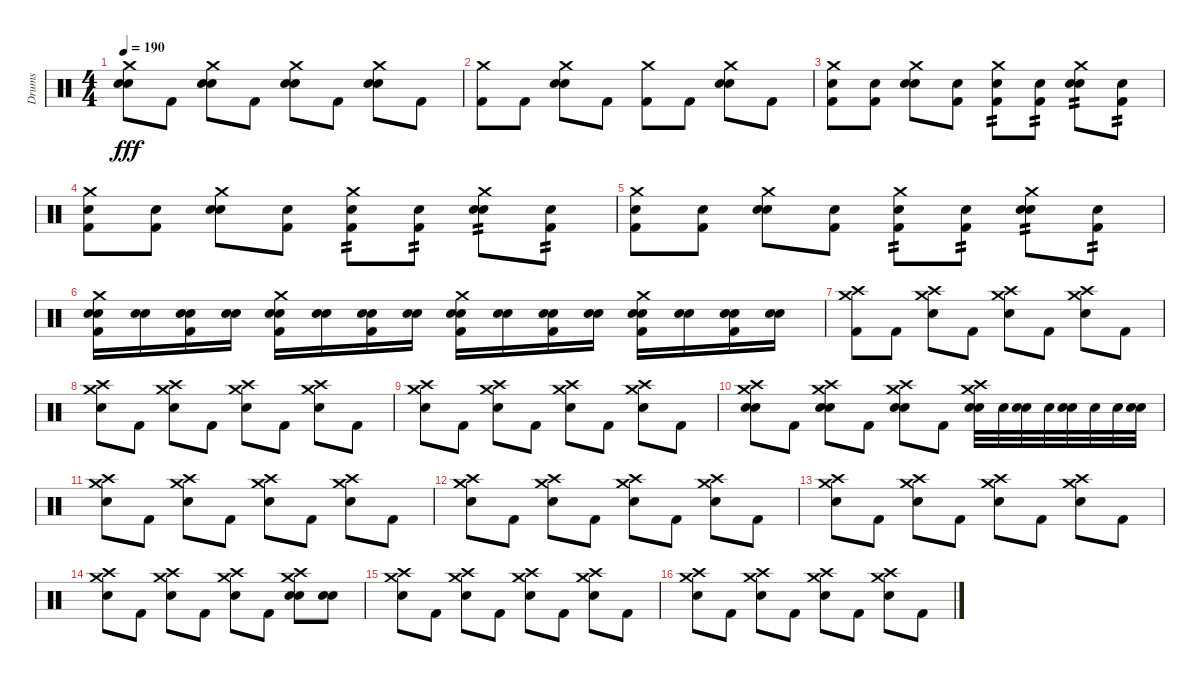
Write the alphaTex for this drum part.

\track ("Drums" "Drums") {instrument percussion}
\staff {score}
\articulation defaults
\ts (4 4)
\tempo 190
\clef neutral
\ks c
("Crash medium (hit)" "Snare (hit) 2" "Snare (hit) 2").8{dy fff} "Kick (hit) 2".8 ("Crash medium (hit)" "Snare (hit) 2" "Snare (hit) 2").8 "Kick (hit) 2".8 ("Crash medium (hit)" "Snare (hit) 2" "Snare (hit) 2").8 "Kick (hit) 2".8 ("Crash medium (hit)" "Snare (hit) 2" "Snare (hit) 2").8 "Kick (hit) 2".8 |
("Crash medium (hit)" "Kick (hit) 2").8 "Kick (hit) 2".8 ("Crash medium (hit)" "Snare (hit) 2" "Snare (hit) 2").8 "Kick (hit) 2".8 ("Crash medium (hit)" "Kick (hit) 2").8 "Kick (hit) 2".8 ("Crash medium (hit)" "Snare (hit) 2" "Snare (hit) 2").8 "Kick (hit) 2".8 |
("Crash medium (hit)" "Electric Snare (hit)" "Kick (hit) 2").8 ("Electric Snare (hit)" "Kick (hit) 2").8 ("Crash medium (hit)" "Electric Snare (hit)" "Snare (hit) 2").8 ("Electric Snare (hit)" "Kick (hit) 2").8 ("Crash medium (hit)" "Electric Snare (hit)" "Kick (hit) 2").8{tp 2} ("Electric Snare (hit)" "Kick (hit) 2").8{tp 2} ("Crash medium (hit)" "Electric Snare (hit)" "Snare (hit) 2").8{tp 2} ("Electric Snare (hit)" "Kick (hit) 2").8{tp 2} |
("Crash medium (hit)" "Electric Snare (hit)" "Kick (hit) 2").8 ("Electric Snare (hit)" "Kick (hit) 2").8 ("Crash medium (hit)" "Electric Snare (hit)" "Snare (hit) 2").8 ("Electric Snare (hit)" "Kick (hit) 2").8 ("Crash medium (hit)" "Electric Snare (hit)" "Kick (hit) 2").8{tp 2} ("Electric Snare (hit)" "Kick (hit) 2").8{tp 2} ("Crash medium (hit)" "Electric Snare (hit)" "Snare (hit) 2").8{tp 2} ("Electric Snare (hit)" "Kick (hit) 2").8{tp 2} |
("Crash medium (hit)" "Electric Snare (hit)" "Kick (hit) 2").8 ("Electric Snare (hit)" "Kick (hit) 2").8 ("Crash medium (hit)" "Electric Snare (hit)" "Snare (hit) 2").8 ("Electric Snare (hit)" "Kick (hit) 2").8 ("Crash medium (hit)" "Electric Snare (hit)" "Kick (hit) 2").8{tp 2} ("Electric Snare (hit)" "Kick (hit) 2").8{tp 2} ("Crash medium (hit)" "Electric Snare (hit)" "Snare (hit) 2").8{tp 2} ("Electric Snare (hit)" "Kick (hit) 2").8{tp 2} |
("Crash medium (hit)" "Snare (hit) 2" "Electric Snare (hit)" "Kick (hit) 2").16 ("Snare (hit) 2" "Electric Snare (hit)").16 ("Snare (hit) 2" "Electric Snare (hit)" "Kick (hit) 2").16 ("Snare (hit) 2" "Electric Snare (hit)").16 ("Crash medium (hit)" "Snare (hit) 2" "Electric Snare (hit)" "Kick (hit) 2").16 ("Snare (hit) 2" "Electric Snare (hit)").16 ("Snare (hit) 2" "Electric Snare (hit)" "Kick (hit) 2").16 ("Snare (hit) 2" "Electric Snare (hit)").16 ("Crash medium (hit)" "Snare (hit) 2" "Electric Snare (hit)" "Kick (hit) 2").16 ("Snare (hit) 2" "Electric Snare (hit)").16 ("Snare (hit) 2" "Electric Snare (hit)" "Kick (hit) 2").16 ("Snare (hit) 2" "Electric Snare (hit)").16 ("Crash medium (hit)" "Snare (hit) 2" "Electric Snare (hit)" "Kick (hit) 2").16 ("Snare (hit) 2" "Electric Snare (hit)").16 ("Snare (hit) 2" "Electric Snare (hit)" "Kick (hit) 2").16 ("Snare (hit) 2" "Electric Snare (hit)").16 |
("Crash high (hit)" "Crash medium (hit)" "Kick (hit) 2").8 "Kick (hit) 2".8 ("Crash high (hit)" "Crash medium (hit)" "Snare (hit) 2").8 "Kick (hit) 2".8 ("Crash high (hit)" "Crash medium (hit)" "Snare (hit) 2").8 "Kick (hit) 2".8 ("Crash high (hit)" "Crash medium (hit)" "Snare (hit) 2").8 "Kick (hit) 2".8 |
("Crash high (hit)" "Crash medium (hit)" "Snare (hit) 2").8 "Kick (hit) 2".8 ("Crash high (hit)" "Crash medium (hit)" "Snare (hit) 2").8 "Kick (hit) 2".8 ("Crash high (hit)" "Crash medium (hit)" "Snare (hit) 2").8 "Kick (hit) 2".8 ("Crash high (hit)" "Crash medium (hit)" "Snare (hit) 2").8 "Kick (hit) 2".8 |
("Crash high (hit)" "Crash medium (hit)" "Snare (hit) 2").8 "Kick (hit) 2".8 ("Crash high (hit)" "Crash medium (hit)" "Snare (hit) 2").8 "Kick (hit) 2".8 ("Crash high (hit)" "Crash medium (hit)" "Snare (hit) 2").8 "Kick (hit) 2".8 ("Crash high (hit)" "Crash medium (hit)" "Snare (hit) 2").8 "Kick (hit) 2".8 |
("Crash high (hit)" "Crash medium (hit)" "Electric Snare (hit)" "Snare (hit) 2").8 "Kick (hit) 2".8 ("Crash high (hit)" "Crash medium (hit)" "Electric Snare (hit)" "Snare (hit) 2").8 "Kick (hit) 2".8 ("Crash high (hit)" "Crash medium (hit)" "Electric Snare (hit)" "Snare (hit) 2").8 "Kick (hit) 2".8 ("Crash high (hit)" "Crash medium (hit)" "Electric Snare (hit)" "Snare (hit) 2").32 "Electric Snare (hit)".32 ("Electric Snare (hit)" "Snare (hit) 2").32 "Electric Snare (hit)".32 ("Electric Snare (hit)" "Snare (hit) 2").32 "Electric Snare (hit)".32 "Electric Snare (hit)".32 ("Electric Snare (hit)" "Snare (hit) 2").32 |
("Crash high (hit)" "Crash medium (hit)" "Snare (hit) 2").8 "Kick (hit) 2".8 ("Crash high (hit)" "Crash medium (hit)" "Snare (hit) 2").8 "Kick (hit) 2".8 ("Crash high (hit)" "Crash medium (hit)" "Snare (hit) 2").8 "Kick (hit) 2".8 ("Crash high (hit)" "Crash medium (hit)" "Snare (hit) 2").8 "Kick (hit) 2".8 |
("Crash high (hit)" "Crash medium (hit)" "Snare (hit) 2").8 "Kick (hit) 2".8 ("Crash high (hit)" "Crash medium (hit)" "Snare (hit) 2").8 "Kick (hit) 2".8 ("Crash high (hit)" "Crash medium (hit)" "Snare (hit) 2").8 "Kick (hit) 2".8 ("Crash high (hit)" "Crash medium (hit)" "Snare (hit) 2").8 "Kick (hit) 2".8 |
("Crash high (hit)" "Crash medium (hit)" "Snare (hit) 2").8 "Kick (hit) 2".8 ("Crash high (hit)" "Crash medium (hit)" "Snare (hit) 2").8 "Kick (hit) 2".8 ("Crash high (hit)" "Crash medium (hit)" "Snare (hit) 2").8 "Kick (hit) 2".8 ("Crash high (hit)" "Crash medium (hit)" "Snare (hit) 2").8 "Kick (hit) 2".8 |
("Crash high (hit)" "Crash medium (hit)" "Snare (hit) 2").8 "Kick (hit) 2".8 ("Crash high (hit)" "Crash medium (hit)" "Snare (hit) 2").8 "Kick (hit) 2".8 ("Crash high (hit)" "Crash medium (hit)" "Snare (hit) 2").8 "Kick (hit) 2".8 ("Crash high (hit)" "Crash medium (hit)" "Electric Snare (hit)" "Snare (hit) 2").8 ("Electric Snare (hit)" "Snare (hit) 2").8 |
("Crash high (hit)" "Crash medium (hit)" "Snare (hit) 2").8 "Kick (hit) 2".8 ("Crash high (hit)" "Crash medium (hit)" "Snare (hit) 2").8 "Kick (hit) 2".8 ("Crash high (hit)" "Crash medium (hit)" "Snare (hit) 2").8 "Kick (hit) 2".8 ("Crash high (hit)" "Crash medium (hit)" "Snare (hit) 2").8 "Kick (hit) 2".8 |
("Crash high (hit)" "Crash medium (hit)" "Snare (hit) 2").8 "Kick (hit) 2".8 ("Crash high (hit)" "Crash medium (hit)" "Snare (hit) 2").8 "Kick (hit) 2".8 ("Crash high (hit)" "Crash medium (hit)" "Snare (hit) 2").8 "Kick (hit) 2".8 ("Crash high (hit)" "Crash medium (hit)" "Snare (hit) 2").8 "Kick (hit) 2".8
